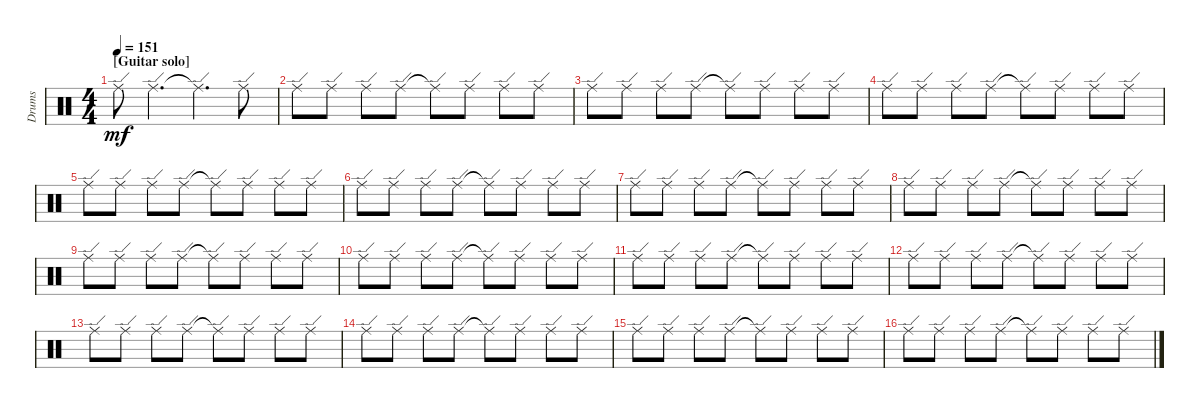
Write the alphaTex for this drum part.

\bracketExtendMode groupsimilarinstruments
\track ("Drumkit" "Drums") {instrument percussion}
\staff {score}
\articulation defaults
\ts (4 4)
\section ("" "[Guitar solo]")
\tempo 151
\clef neutral
\ks aminor "Ride (edge)".8{dy mf} "Ride (edge)".4{d} "Ride (edge)"{t}.4{d} "Ride (edge)".8
|
"Ride (edge)".8 "Ride (edge)".8 "Ride (edge)".8 "Ride (edge)".8 "Ride (edge)"{t}.8 "Ride (edge)".8 "Ride (edge)".8 "Ride (edge)".8 |
"Ride (edge)".8 "Ride (edge)".8 "Ride (edge)".8 "Ride (edge)".8 "Ride (edge)"{t}.8 "Ride (edge)".8 "Ride (edge)".8 "Ride (edge)".8 |
"Ride (edge)".8 "Ride (edge)".8 "Ride (edge)".8 "Ride (edge)".8 "Ride (edge)"{t}.8 "Ride (edge)".8 "Ride (edge)".8 "Ride (edge)".8 |
"Ride (edge)".8 "Ride (edge)".8 "Ride (edge)".8 "Ride (edge)".8 "Ride (edge)"{t}.8 "Ride (edge)".8 "Ride (edge)".8 "Ride (edge)".8 |
"Ride (edge)".8 "Ride (edge)".8 "Ride (edge)".8 "Ride (edge)".8 "Ride (edge)"{t}.8 "Ride (edge)".8 "Ride (edge)".8 "Ride (edge)".8 |
"Ride (edge)".8 "Ride (edge)".8 "Ride (edge)".8 "Ride (edge)".8 "Ride (edge)"{t}.8 "Ride (edge)".8 "Ride (edge)".8 "Ride (edge)".8 |
"Ride (edge)".8 "Ride (edge)".8 "Ride (edge)".8 "Ride (edge)".8 "Ride (edge)"{t}.8 "Ride (edge)".8 "Ride (edge)".8 "Ride (edge)".8 |
"Ride (edge)".8 "Ride (edge)".8 "Ride (edge)".8 "Ride (edge)".8 "Ride (edge)"{t}.8 "Ride (edge)".8 "Ride (edge)".8 "Ride (edge)".8 |
"Ride (edge)".8 "Ride (edge)".8 "Ride (edge)".8 "Ride (edge)".8 "Ride (edge)"{t}.8 "Ride (edge)".8 "Ride (edge)".8 "Ride (edge)".8 |
"Ride (edge)".8 "Ride (edge)".8 "Ride (edge)".8 "Ride (edge)".8 "Ride (edge)"{t}.8 "Ride (edge)".8 "Ride (edge)".8 "Ride (edge)".8 |
"Ride (edge)".8 "Ride (edge)".8 "Ride (edge)".8 "Ride (edge)".8 "Ride (edge)"{t}.8 "Ride (edge)".8 "Ride (edge)".8 "Ride (edge)".8 |
"Ride (edge)".8 "Ride (edge)".8 "Ride (edge)".8 "Ride (edge)".8 "Ride (edge)"{t}.8 "Ride (edge)".8 "Ride (edge)".8 "Ride (edge)".8 |
"Ride (edge)".8 "Ride (edge)".8 "Ride (edge)".8 "Ride (edge)".8 "Ride (edge)"{t}.8 "Ride (edge)".8 "Ride (edge)".8 "Ride (edge)".8 |
"Ride (edge)".8 "Ride (edge)".8 "Ride (edge)".8 "Ride (edge)".8 "Ride (edge)"{t}.8 "Ride (edge)".8 "Ride (edge)".8 "Ride (edge)".8 |
"Ride (edge)".8 "Ride (edge)".8 "Ride (edge)".8 "Ride (edge)".8 "Ride (edge)"{t}.8 "Ride (edge)".8 "Ride (edge)".8 "Ride (edge)".8
